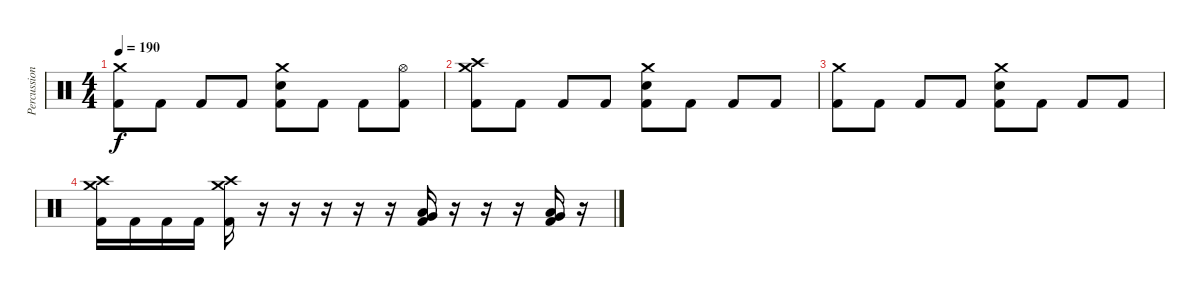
\track ("Percussion" "Percussion") {instrument percussion}
\staff {score}
\articulation defaults
\ts (4 4)
\tempo 190
\clef neutral
\ks c
("Crash medium (hit)" "Kick (hit) 2").8{dy f} "Kick (hit) 2".8 "Kick (hit) 2".8 "Kick (hit) 2".8 ("Crash medium (hit)" "Snare (hit) 2" "Kick (hit) 2").8 "Kick (hit) 2".8 "Kick (hit) 2".8 ("Hi-Hat (open)" "Kick (hit) 2").8 |
("Crash medium (hit)" "Crash high (hit)" "Kick (hit) 2").8 "Kick (hit) 2".8 "Kick (hit) 2".8 "Kick (hit) 2".8 ("Crash medium (hit)" "Snare (hit) 2" "Kick (hit) 2").8 "Kick (hit) 2".8 "Kick (hit) 2".8 "Kick (hit) 2".8 |
("Crash medium (hit)" "Kick (hit) 2").8 "Kick (hit) 2".8 "Kick (hit) 2".8 "Kick (hit) 2".8 ("Crash medium (hit)" "Snare (hit) 2" "Kick (hit) 2").8 "Kick (hit) 2".8 "Kick (hit) 2".8 "Kick (hit) 2".8 |
("Crash medium (hit)" "Crash high (hit)" "Kick (hit) 2").16 "Kick (hit) 2".16 "Kick (hit) 2".16 "Kick (hit) 2".16 ("Crash medium (hit)" "Crash high (hit)" "Kick (hit) 2").16 r.16 r.16 r.16 r.16 r.16 ("Very Low Tom (hit)" "Low Floor Tom (hit)" "Kick (hit) 2").16 r.16 r.16 r.16 ("Very Low Tom (hit)" "Low Floor Tom (hit)" "Kick (hit) 2").16 r.16
